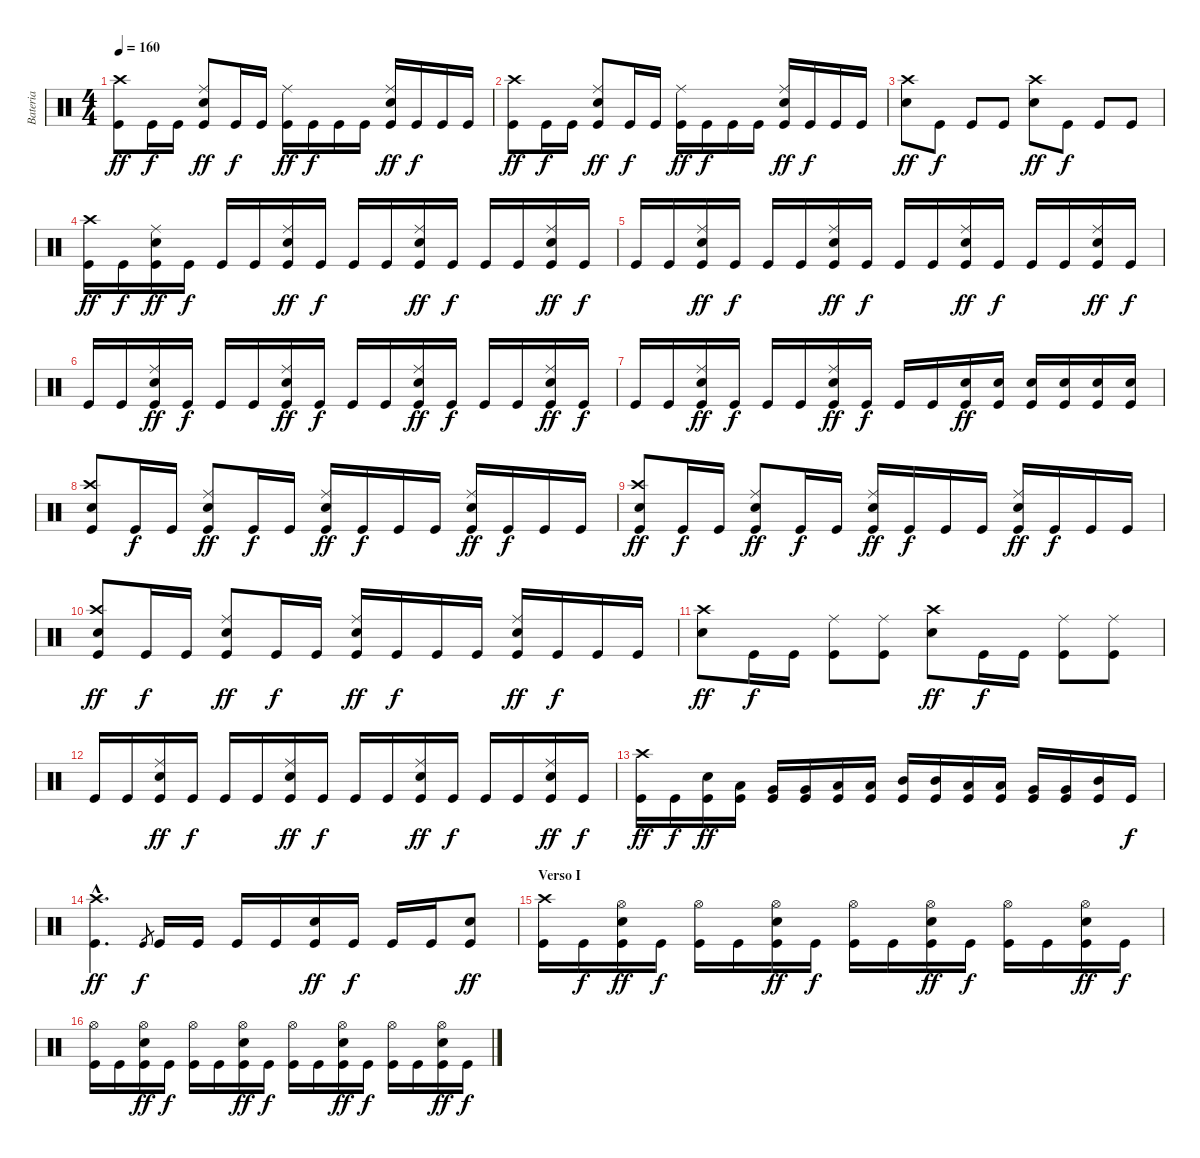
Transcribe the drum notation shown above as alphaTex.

\track ("Bateria" "Bateria") {instrument percussion}
\staff {score}
\articulation defaults
\ts (4 4)
\tempo 160
\clef neutral
\ks c
("Kick (hit)" "Crash high (hit)").8{dy ff} "Kick (hit)".16{dy f} "Kick (hit)".16 ("Kick (hit)" "Ride (middle)" "Electric Snare (hit)").8{dy ff} "Kick (hit)".16{dy f} "Kick (hit)".16 ("Kick (hit)" "Ride (middle)").16{dy ff} "Kick (hit)".16{dy f} "Kick (hit)".16 "Kick (hit)".16 ("Kick (hit)" "Ride (middle)" "Electric Snare (hit)").16{dy ff} "Kick (hit)".16{dy f} "Kick (hit)".16 "Kick (hit)".16 |
("Kick (hit)" "Crash high (hit)").8{dy ff} "Kick (hit)".16{dy f} "Kick (hit)".16 ("Kick (hit)" "Ride (middle)" "Electric Snare (hit)").8{dy ff} "Kick (hit)".16{dy f} "Kick (hit)".16 ("Kick (hit)" "Ride (middle)").16{dy ff} "Kick (hit)".16{dy f} "Kick (hit)".16 "Kick (hit)".16 ("Kick (hit)" "Ride (middle)" "Electric Snare (hit)").16{dy ff} "Kick (hit)".16{dy f} "Kick (hit)".16 "Kick (hit)".16 |
("Electric Snare (hit)" "Crash high (hit)").8{dy ff} "Kick (hit)".8{dy f} "Kick (hit)".8 "Kick (hit)".8 ("Electric Snare (hit)" "Crash high (hit)").8{dy ff} "Kick (hit)".8{dy f} "Kick (hit)".8 "Kick (hit)".8 |
("Kick (hit)" "Crash high (hit)").16{dy ff} "Kick (hit)".16{dy f} ("Kick (hit)" "Electric Snare (hit)" "Ride (middle)").16{dy ff} "Kick (hit)".16{dy f} "Kick (hit)".16 "Kick (hit)".16 ("Kick (hit)" "Electric Snare (hit)" "Ride (middle)").16{dy ff} "Kick (hit)".16{dy f} "Kick (hit)".16 "Kick (hit)".16 ("Kick (hit)" "Electric Snare (hit)" "Ride (middle)").16{dy ff} "Kick (hit)".16{dy f} "Kick (hit)".16 "Kick (hit)".16 ("Kick (hit)" "Electric Snare (hit)" "Ride (middle)").16{dy ff} "Kick (hit)".16{dy f} |
"Kick (hit)".16 "Kick (hit)".16 ("Kick (hit)" "Electric Snare (hit)" "Ride (middle)").16{dy ff} "Kick (hit)".16{dy f} "Kick (hit)".16 "Kick (hit)".16 ("Kick (hit)" "Electric Snare (hit)" "Ride (middle)").16{dy ff} "Kick (hit)".16{dy f} "Kick (hit)".16 "Kick (hit)".16 ("Kick (hit)" "Electric Snare (hit)" "Ride (middle)").16{dy ff} "Kick (hit)".16{dy f} "Kick (hit)".16 "Kick (hit)".16 ("Kick (hit)" "Electric Snare (hit)" "Ride (middle)").16{dy ff} "Kick (hit)".16{dy f} |
"Kick (hit)".16 "Kick (hit)".16 ("Kick (hit)" "Electric Snare (hit)" "Ride (middle)").16{dy ff} "Kick (hit)".16{dy f} "Kick (hit)".16 "Kick (hit)".16 ("Kick (hit)" "Electric Snare (hit)" "Ride (middle)").16{dy ff} "Kick (hit)".16{dy f} "Kick (hit)".16 "Kick (hit)".16 ("Kick (hit)" "Electric Snare (hit)" "Ride (middle)").16{dy ff} "Kick (hit)".16{dy f} "Kick (hit)".16 "Kick (hit)".16 ("Kick (hit)" "Electric Snare (hit)" "Ride (middle)").16{dy ff} "Kick (hit)".16{dy f} |
"Kick (hit)".16 "Kick (hit)".16 ("Kick (hit)" "Electric Snare (hit)" "Ride (middle)").16{dy ff} "Kick (hit)".16{dy f} "Kick (hit)".16 "Kick (hit)".16 ("Kick (hit)" "Electric Snare (hit)" "Ride (middle)").16{dy ff} "Kick (hit)".16{dy f} "Kick (hit)".16 "Kick (hit)".16 ("Kick (hit)" "Electric Snare (hit)").16{dy ff} ("Kick (hit)" "Electric Snare (hit)").16 ("Kick (hit)" "Electric Snare (hit)").16 ("Kick (hit)" "Electric Snare (hit)").16 ("Kick (hit)" "Electric Snare (hit)").16 ("Kick (hit)" "Electric Snare (hit)").16 |
("Kick (hit)" "Electric Snare (hit)" "Crash high (hit)").8 "Kick (hit)".16{dy f} "Kick (hit)".16 ("Kick (hit)" "Electric Snare (hit)" "Ride (middle)").8{dy ff} "Kick (hit)".16{dy f} "Kick (hit)".16 ("Kick (hit)" "Electric Snare (hit)" "Ride (middle)").16{dy ff} "Kick (hit)".16{dy f} "Kick (hit)".16 "Kick (hit)".16 ("Kick (hit)" "Electric Snare (hit)" "Ride (middle)").16{dy ff} "Kick (hit)".16{dy f} "Kick (hit)".16 "Kick (hit)".16 |
("Kick (hit)" "Electric Snare (hit)" "Crash high (hit)").8{dy ff} "Kick (hit)".16{dy f} "Kick (hit)".16 ("Kick (hit)" "Electric Snare (hit)" "Ride (middle)").8{dy ff} "Kick (hit)".16{dy f} "Kick (hit)".16 ("Kick (hit)" "Electric Snare (hit)" "Ride (middle)").16{dy ff} "Kick (hit)".16{dy f} "Kick (hit)".16 "Kick (hit)".16 ("Kick (hit)" "Electric Snare (hit)" "Ride (middle)").16{dy ff} "Kick (hit)".16{dy f} "Kick (hit)".16 "Kick (hit)".16 |
("Kick (hit)" "Electric Snare (hit)" "Crash high (hit)").8{dy ff} "Kick (hit)".16{dy f} "Kick (hit)".16 ("Kick (hit)" "Electric Snare (hit)" "Ride (middle)").8{dy ff} "Kick (hit)".16{dy f} "Kick (hit)".16 ("Kick (hit)" "Electric Snare (hit)" "Ride (middle)").16{dy ff} "Kick (hit)".16{dy f} "Kick (hit)".16 "Kick (hit)".16 ("Kick (hit)" "Electric Snare (hit)" "Ride (middle)").16{dy ff} "Kick (hit)".16{dy f} "Kick (hit)".16 "Kick (hit)".16 |
("Electric Snare (hit)" "Crash high (hit)").8{dy ff} "Kick (hit)".16{dy f} "Kick (hit)".16 ("Kick (hit)" "Ride (middle)").8 ("Kick (hit)" "Ride (middle)").8 ("Electric Snare (hit)" "Crash high (hit)").8{dy ff} "Kick (hit)".16{dy f} "Kick (hit)".16 ("Kick (hit)" "Ride (middle)").8 ("Kick (hit)" "Ride (middle)").8 |
"Kick (hit)".16 "Kick (hit)".16 ("Kick (hit)" "Electric Snare (hit)" "Ride (middle)").16{dy ff} "Kick (hit)".16{dy f} "Kick (hit)".16 "Kick (hit)".16 ("Kick (hit)" "Electric Snare (hit)" "Ride (middle)").16{dy ff} "Kick (hit)".16{dy f} "Kick (hit)".16 "Kick (hit)".16 ("Kick (hit)" "Electric Snare (hit)" "Ride (middle)").16{dy ff} "Kick (hit)".16{dy f} "Kick (hit)".16 "Kick (hit)".16 ("Kick (hit)" "Electric Snare (hit)" "Ride (middle)").16{dy ff} "Kick (hit)".16{dy f} |
("Kick (hit)" "Crash high (hit)").16{dy ff} "Kick (hit)".16{dy f} ("Kick (hit)" "Electric Snare (hit)").16{dy ff} ("Kick (hit)" "Low Tom (hit)").16 ("Kick (hit)" "Very Low Tom (hit)").16 ("Kick (hit)" "Very Low Tom (hit)").16 ("Kick (hit)" "Low Floor Tom (hit)").16 ("Kick (hit)" "Low Floor Tom (hit)").16 ("Kick (hit)" "Mid Tom (hit)").16 ("Kick (hit)" "Mid Tom (hit)").16 ("Kick (hit)" "Low Tom (hit)").16 ("Kick (hit)" "Low Tom (hit)").16 ("Kick (hit)" "Very Low Tom (hit)").16 ("Kick (hit)" "Very Low Tom (hit)").16 ("Kick (hit)" "Mid Tom (hit)").16 "Kick (hit)".16{dy f} |
("Kick (hit)"{hac} "Crash high (hit)"{hac}).4{d dy ff} "Kick (hit)".8{gr dy f} "Kick (hit)".16 "Kick (hit)".16 "Kick (hit)".16 "Kick (hit)".16 ("Kick (hit)" "Electric Snare (hit)").16{dy ff} "Kick (hit)".16{dy f} "Kick (hit)".16 "Kick (hit)".16 ("Kick (hit)" "Electric Snare (hit)").8{dy ff} |
\section ("" "Verso I")
("Kick (hit)" "Crash high (hit)").16 "Kick (hit)".16{dy f} ("Kick (hit)" "Electric Snare (hit)" "Hi-Hat (open)").16{dy ff} "Kick (hit)".16{dy f} ("Kick (hit)" "Hi-Hat (open)").16 "Kick (hit)".16 ("Kick (hit)" "Electric Snare (hit)" "Hi-Hat (open)").16{dy ff} "Kick (hit)".16{dy f} ("Kick (hit)" "Hi-Hat (open)").16 "Kick (hit)".16 ("Kick (hit)" "Electric Snare (hit)" "Hi-Hat (open)").16{dy ff} "Kick (hit)".16{dy f} ("Kick (hit)" "Hi-Hat (open)").16 "Kick (hit)".16 ("Kick (hit)" "Electric Snare (hit)" "Hi-Hat (open)").16{dy ff} "Kick (hit)".16{dy f} |
("Kick (hit)" "Hi-Hat (open)").16 "Kick (hit)".16 ("Kick (hit)" "Electric Snare (hit)" "Hi-Hat (open)").16{dy ff} "Kick (hit)".16{dy f} ("Kick (hit)" "Hi-Hat (open)").16 "Kick (hit)".16 ("Kick (hit)" "Electric Snare (hit)" "Hi-Hat (open)").16{dy ff} "Kick (hit)".16{dy f} ("Kick (hit)" "Hi-Hat (open)").16 "Kick (hit)".16 ("Kick (hit)" "Electric Snare (hit)" "Hi-Hat (open)").16{dy ff} "Kick (hit)".16{dy f} ("Kick (hit)" "Hi-Hat (open)").16 "Kick (hit)".16 ("Kick (hit)" "Electric Snare (hit)" "Hi-Hat (open)").16{dy ff} "Kick (hit)".16{dy f}
